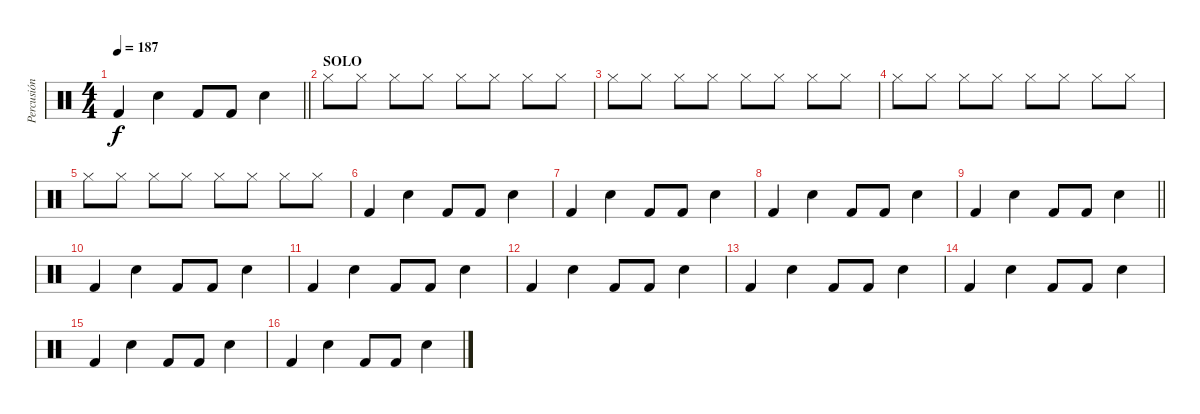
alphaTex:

\track ("Percusión" "Percusión") {instrument percussion}
\staff {score}
\articulation defaults
\ts (4 4)
\tempo 187
\clef neutral
\barLineRight lightlight
\ks c "Kick (hit) 2".4{dy f} "Snare (hit) 2".4 "Kick (hit) 2".8 "Kick (hit) 2".8 "Snare (hit) 2".4
|
\section ("" "SOLO")
"Hi-Hat (closed)".8 "Hi-Hat (closed)".8 "Hi-Hat (closed)".8 "Hi-Hat (closed)".8 "Hi-Hat (closed)".8 "Hi-Hat (closed)".8 "Hi-Hat (closed)".8 "Hi-Hat (closed)".8 |
"Hi-Hat (closed)".8 "Hi-Hat (closed)".8 "Hi-Hat (closed)".8 "Hi-Hat (closed)".8 "Hi-Hat (closed)".8 "Hi-Hat (closed)".8 "Hi-Hat (closed)".8 "Hi-Hat (closed)".8 |
"Hi-Hat (closed)".8 "Hi-Hat (closed)".8 "Hi-Hat (closed)".8 "Hi-Hat (closed)".8 "Hi-Hat (closed)".8 "Hi-Hat (closed)".8 "Hi-Hat (closed)".8 "Hi-Hat (closed)".8 |
"Hi-Hat (closed)".8 "Hi-Hat (closed)".8 "Hi-Hat (closed)".8 "Hi-Hat (closed)".8 "Hi-Hat (closed)".8 "Hi-Hat (closed)".8 "Hi-Hat (closed)".8 "Hi-Hat (closed)".8 |
"Kick (hit) 2".4 "Snare (hit) 2".4 "Kick (hit) 2".8 "Kick (hit) 2".8 "Snare (hit) 2".4 |
"Kick (hit) 2".4 "Snare (hit) 2".4 "Kick (hit) 2".8 "Kick (hit) 2".8 "Snare (hit) 2".4 |
"Kick (hit) 2".4 "Snare (hit) 2".4 "Kick (hit) 2".8 "Kick (hit) 2".8 "Snare (hit) 2".4 |
\barLineRight lightlight "Kick (hit) 2".4 "Snare (hit) 2".4 "Kick (hit) 2".8 "Kick (hit) 2".8 "Snare (hit) 2".4
|
"Kick (hit) 2".4 "Snare (hit) 2".4 "Kick (hit) 2".8 "Kick (hit) 2".8 "Snare (hit) 2".4 |
"Kick (hit) 2".4 "Snare (hit) 2".4 "Kick (hit) 2".8 "Kick (hit) 2".8 "Snare (hit) 2".4 |
"Kick (hit) 2".4 "Snare (hit) 2".4 "Kick (hit) 2".8 "Kick (hit) 2".8 "Snare (hit) 2".4 |
"Kick (hit) 2".4 "Snare (hit) 2".4 "Kick (hit) 2".8 "Kick (hit) 2".8 "Snare (hit) 2".4 |
"Kick (hit) 2".4 "Snare (hit) 2".4 "Kick (hit) 2".8 "Kick (hit) 2".8 "Snare (hit) 2".4 |
"Kick (hit) 2".4 "Snare (hit) 2".4 "Kick (hit) 2".8 "Kick (hit) 2".8 "Snare (hit) 2".4 |
"Kick (hit) 2".4 "Snare (hit) 2".4 "Kick (hit) 2".8 "Kick (hit) 2".8 "Snare (hit) 2".4
